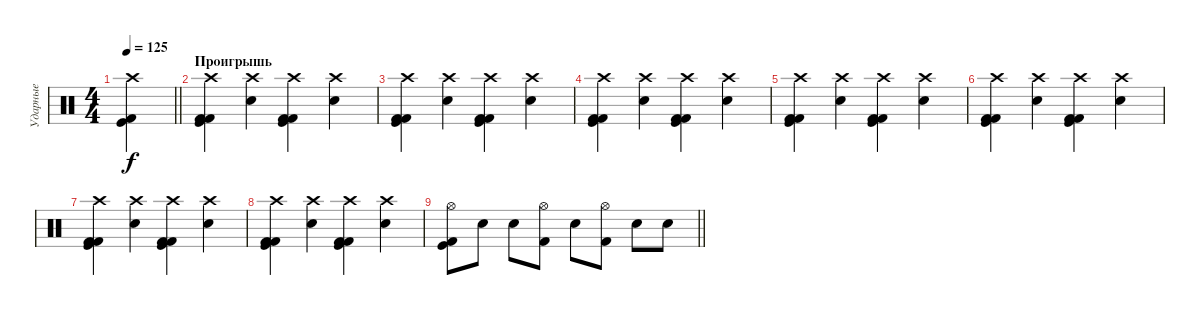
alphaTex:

\track ("Ударные" "Ударные") {instrument percussion}
\staff {score}
\articulation defaults
\ts (4 4)
\tempo 125
\clef neutral
\barLineRight lightlight
\ks c
("Crash high (hit)" "Kick (hit) 2" "Kick (hit)").4{dy f} |
\section ("" "Проигрышь")
("Crash high (hit)" "Kick (hit)" "Kick (hit) 2" "Kick (hit) 2").4 ("Crash high (hit)" "Electric Snare (hit)").4 ("Crash high (hit)" "Kick (hit)" "Kick (hit) 2" "Kick (hit) 2").4 ("Crash high (hit)" "Electric Snare (hit)").4 |
("Crash high (hit)" "Kick (hit) 2" "Kick (hit) 2" "Kick (hit)").4 ("Crash high (hit)" "Electric Snare (hit)").4 ("Crash high (hit)" "Kick (hit) 2" "Kick (hit) 2" "Kick (hit)").4 ("Crash high (hit)" "Electric Snare (hit)").4 |
("Crash high (hit)" "Kick (hit) 2" "Kick (hit) 2" "Kick (hit)").4 ("Crash high (hit)" "Electric Snare (hit)").4 ("Crash high (hit)" "Kick (hit) 2" "Kick (hit) 2" "Kick (hit)").4 ("Crash high (hit)" "Electric Snare (hit)").4 |
("Crash high (hit)" "Kick (hit) 2" "Kick (hit) 2" "Kick (hit)").4 ("Crash high (hit)" "Electric Snare (hit)").4 ("Crash high (hit)" "Kick (hit) 2" "Kick (hit) 2" "Kick (hit)").4 ("Crash high (hit)" "Electric Snare (hit)").4 |
("Crash high (hit)" "Kick (hit)" "Kick (hit) 2" "Kick (hit) 2").4 ("Crash high (hit)" "Electric Snare (hit)").4 ("Crash high (hit)" "Kick (hit)" "Kick (hit) 2" "Kick (hit) 2").4 ("Crash high (hit)" "Electric Snare (hit)").4 |
("Crash high (hit)" "Kick (hit) 2" "Kick (hit) 2" "Kick (hit)").4 ("Crash high (hit)" "Electric Snare (hit)").4 ("Crash high (hit)" "Kick (hit) 2" "Kick (hit) 2" "Kick (hit)").4 ("Crash high (hit)" "Electric Snare (hit)").4 |
("Crash high (hit)" "Kick (hit) 2" "Kick (hit) 2" "Kick (hit)").4 ("Crash high (hit)" "Electric Snare (hit)").4 ("Crash high (hit)" "Kick (hit) 2" "Kick (hit) 2" "Kick (hit)").4 ("Crash high (hit)" "Electric Snare (hit)").4 |
\barLineRight lightlight
("Hi-Hat (open)" "Kick (hit) 2" "Kick (hit)").8 "Electric Snare (hit)".8 "Electric Snare (hit)".8 ("Hi-Hat (open)" "Kick (hit) 2").8 "Electric Snare (hit)".8 ("Hi-Hat (open)" "Kick (hit) 2").8 "Electric Snare (hit)".8 "Electric Snare (hit)".8
